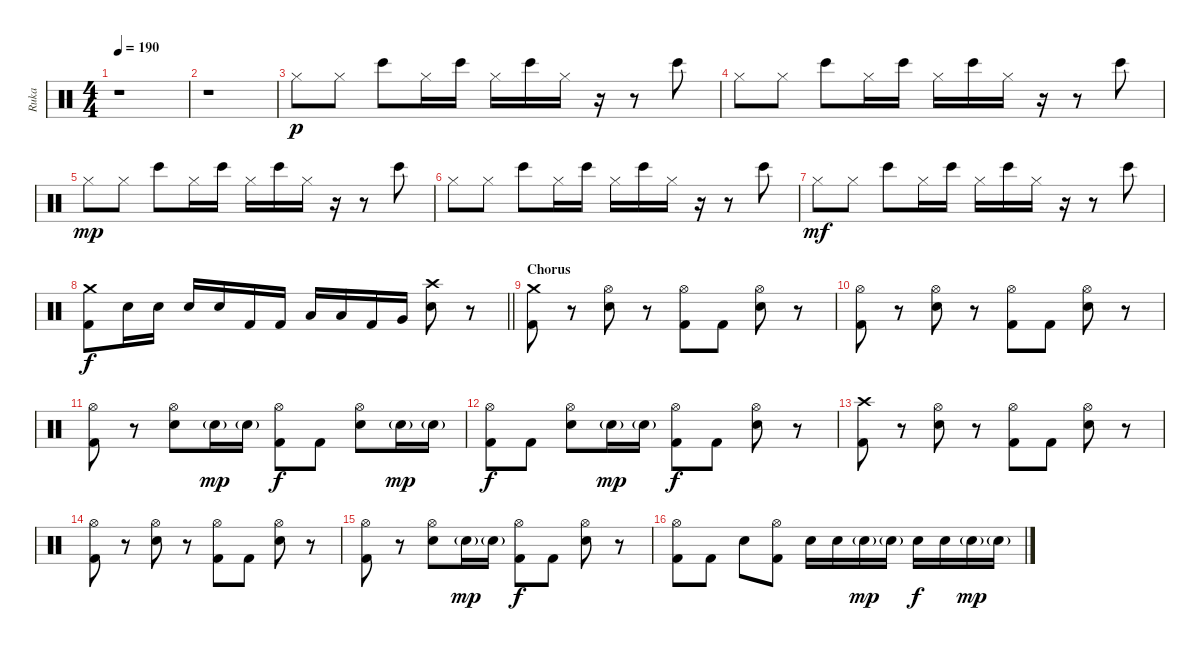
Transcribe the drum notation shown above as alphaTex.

\track ("Ruka " "Ruka ") {instrument percussion}
\staff {score}
\articulation defaults
\ts (4 4)
\tempo 190
\clef neutral
\ks c
r.1{dy f} |
r.1 |
"Hi-Hat (closed)".8{dy p} "Hi-Hat (closed)".8 "Bongo High (hit)".8 "Hi-Hat (closed)".16 "Bongo High (hit)".16 "Hi-Hat (closed)".16 "Bongo High (hit)".16 "Hi-Hat (closed)".16 r.16 r.8 "Bongo High (hit)".8 |
"Hi-Hat (closed)".8 "Hi-Hat (closed)".8 "Bongo High (hit)".8 "Hi-Hat (closed)".16 "Bongo High (hit)".16 "Hi-Hat (closed)".16 "Bongo High (hit)".16 "Hi-Hat (closed)".16 r.16 r.8 "Bongo High (hit)".8 |
"Hi-Hat (closed)".8{dy mp} "Hi-Hat (closed)".8 "Bongo High (hit)".8 "Hi-Hat (closed)".16 "Bongo High (hit)".16 "Hi-Hat (closed)".16 "Bongo High (hit)".16 "Hi-Hat (closed)".16 r.16 r.8 "Bongo High (hit)".8 |
"Hi-Hat (closed)".8 "Hi-Hat (closed)".8 "Bongo High (hit)".8 "Hi-Hat (closed)".16 "Bongo High (hit)".16 "Hi-Hat (closed)".16 "Bongo High (hit)".16 "Hi-Hat (closed)".16 r.16 r.8 "Bongo High (hit)".8 |
"Hi-Hat (closed)".8{dy mf} "Hi-Hat (closed)".8 "Bongo High (hit)".8 "Hi-Hat (closed)".16 "Bongo High (hit)".16 "Hi-Hat (closed)".16 "Bongo High (hit)".16 "Hi-Hat (closed)".16 r.16 r.8 "Bongo High (hit)".8 |
\barLineRight lightlight
("Crash medium (hit)" "Kick (hit) 2").8{dy f} "Electric Snare (hit)".16 "Electric Snare (hit)".16 "Electric Snare (hit)".16 "Electric Snare (hit)".16 "Kick (hit) 2".16 "Kick (hit) 2".16 "Low Tom (hit)".16 "Low Tom (hit)".16 "Kick (hit) 2".16 "Very Low Tom (hit)".16 ("Crash high (hit)" "Electric Snare (hit)").8 r.8 |
\section ("" "Chorus")
("Crash medium (hit)" "Kick (hit) 2").8 r.8 ("Hi-Hat (open)" "Electric Snare (hit)").8 r.8 ("Hi-Hat (open)" "Kick (hit) 2").8 "Kick (hit) 2".8 ("Hi-Hat (open)" "Electric Snare (hit)").8 r.8 |
("Hi-Hat (open)" "Kick (hit) 2").8 r.8 ("Hi-Hat (open)" "Electric Snare (hit)").8 r.8 ("Hi-Hat (open)" "Kick (hit) 2").8 "Kick (hit) 2".8 ("Hi-Hat (open)" "Electric Snare (hit)").8 r.8 |
("Hi-Hat (open)" "Kick (hit) 2").8 r.8 ("Hi-Hat (open)" "Electric Snare (hit)").8 "Electric Snare (hit)"{g}.16{dy mp} "Electric Snare (hit)"{g}.16 ("Hi-Hat (open)" "Kick (hit) 2").8{dy f} "Kick (hit) 2".8 ("Hi-Hat (open)" "Electric Snare (hit)").8 "Electric Snare (hit)"{g}.16{dy mp} "Electric Snare (hit)"{g}.16 |
("Hi-Hat (open)" "Kick (hit) 2").8{dy f} "Kick (hit) 2".8 ("Hi-Hat (open)" "Electric Snare (hit)").8 "Electric Snare (hit)"{g}.16{dy mp} "Electric Snare (hit)"{g}.16 ("Hi-Hat (open)" "Kick (hit) 2").8{dy f} "Kick (hit) 2".8 ("Hi-Hat (open)" "Electric Snare (hit)").8 r.8 |
("Crash high (hit)" "Kick (hit) 2").8 r.8 ("Hi-Hat (open)" "Electric Snare (hit)").8 r.8 ("Hi-Hat (open)" "Kick (hit) 2").8 "Kick (hit) 2".8 ("Hi-Hat (open)" "Electric Snare (hit)").8 r.8 |
("Hi-Hat (open)" "Kick (hit) 2").8 r.8 ("Hi-Hat (open)" "Electric Snare (hit)").8 r.8 ("Hi-Hat (open)" "Kick (hit) 2").8 "Kick (hit) 2".8 ("Hi-Hat (open)" "Electric Snare (hit)").8 r.8 |
("Hi-Hat (open)" "Kick (hit) 2").8 r.8 ("Hi-Hat (open)" "Electric Snare (hit)").8 "Electric Snare (hit)"{g}.16{dy mp} "Electric Snare (hit)"{g}.16 ("Hi-Hat (open)" "Kick (hit) 2").8{dy f} "Kick (hit) 2".8 ("Hi-Hat (open)" "Electric Snare (hit)").8 r.8 |
("Hi-Hat (open)" "Kick (hit) 2").8 "Kick (hit) 2".8 "Electric Snare (hit)".8 ("Hi-Hat (open)" "Kick (hit) 2").8 "Electric Snare (hit)".16 "Electric Snare (hit)".16 "Electric Snare (hit)"{g}.16{dy mp} "Electric Snare (hit)"{g}.16 "Electric Snare (hit)".16{dy f} "Electric Snare (hit)".16 "Electric Snare (hit)"{g}.16{dy mp} "Electric Snare (hit)"{g}.16
